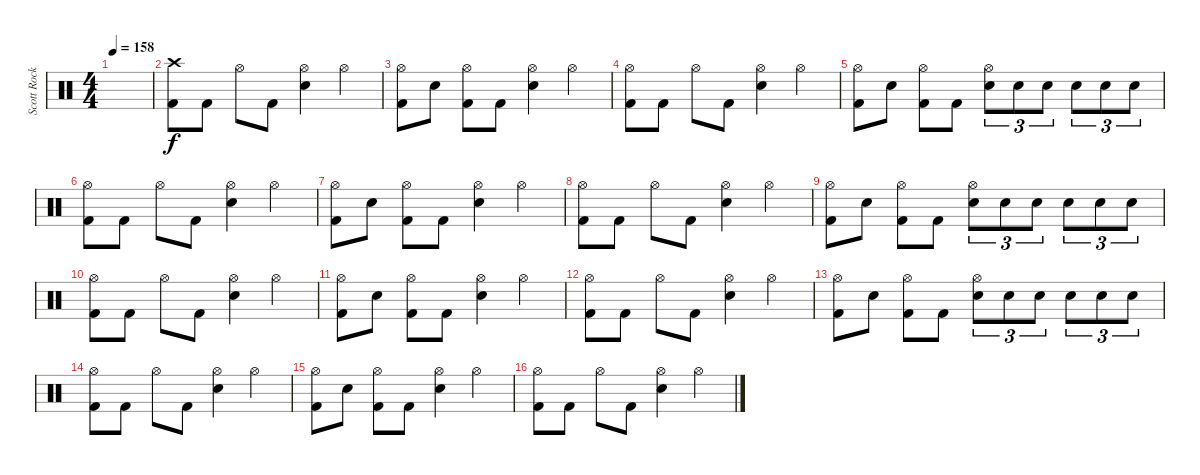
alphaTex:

\track ("Scott Rockenfield" "Scott Rock") {instrument percussion}
\staff {score}
\articulation defaults
\ts (4 4)
\tempo 158
\clef neutral
\ks c
|
("Kick (hit) 2" "Crash high (hit)").8 "Kick (hit) 2".8 "Hi-Hat (open)".8 "Kick (hit) 2".8 ("Hi-Hat (open)" "Electric Snare (hit)").4 "Hi-Hat (open)".4 |
("Kick (hit) 2" "Hi-Hat (open)").8 "Electric Snare (hit)".8 ("Kick (hit) 2" "Hi-Hat (open)").8 "Kick (hit) 2".8 ("Hi-Hat (open)" "Electric Snare (hit)").4 "Hi-Hat (open)".4 |
("Kick (hit) 2" "Hi-Hat (open)").8 "Kick (hit) 2".8 "Hi-Hat (open)".8 "Kick (hit) 2".8 ("Hi-Hat (open)" "Electric Snare (hit)").4 "Hi-Hat (open)".4 |
("Kick (hit) 2" "Hi-Hat (open)").8 "Electric Snare (hit)".8 ("Kick (hit) 2" "Hi-Hat (open)").8 "Kick (hit) 2".8 ("Hi-Hat (open)" "Electric Snare (hit)").8{tu (3 2)} "Electric Snare (hit)".8{tu (3 2)} "Electric Snare (hit)".8{tu (3 2)} "Electric Snare (hit)".8{tu (3 2)} "Electric Snare (hit)".8{tu (3 2)} "Electric Snare (hit)".8{tu (3 2)} |
("Kick (hit) 2" "Hi-Hat (open)").8 "Kick (hit) 2".8 "Hi-Hat (open)".8 "Kick (hit) 2".8 ("Hi-Hat (open)" "Electric Snare (hit)").4 "Hi-Hat (open)".4 |
("Kick (hit) 2" "Hi-Hat (open)").8 "Electric Snare (hit)".8 ("Kick (hit) 2" "Hi-Hat (open)").8 "Kick (hit) 2".8 ("Hi-Hat (open)" "Electric Snare (hit)").4 "Hi-Hat (open)".4 |
("Kick (hit) 2" "Hi-Hat (open)").8 "Kick (hit) 2".8 "Hi-Hat (open)".8 "Kick (hit) 2".8 ("Hi-Hat (open)" "Electric Snare (hit)").4 "Hi-Hat (open)".4 |
("Kick (hit) 2" "Hi-Hat (open)").8 "Electric Snare (hit)".8 ("Kick (hit) 2" "Hi-Hat (open)").8 "Kick (hit) 2".8 ("Hi-Hat (open)" "Electric Snare (hit)").8{tu (3 2)} "Electric Snare (hit)".8{tu (3 2)} "Electric Snare (hit)".8{tu (3 2)} "Electric Snare (hit)".8{tu (3 2)} "Electric Snare (hit)".8{tu (3 2)} "Electric Snare (hit)".8{tu (3 2)} |
("Kick (hit) 2" "Hi-Hat (open)").8 "Kick (hit) 2".8 "Hi-Hat (open)".8 "Kick (hit) 2".8 ("Hi-Hat (open)" "Electric Snare (hit)").4 "Hi-Hat (open)".4 |
("Kick (hit) 2" "Hi-Hat (open)").8 "Electric Snare (hit)".8 ("Kick (hit) 2" "Hi-Hat (open)").8 "Kick (hit) 2".8 ("Hi-Hat (open)" "Electric Snare (hit)").4 "Hi-Hat (open)".4 |
("Kick (hit) 2" "Hi-Hat (open)").8 "Kick (hit) 2".8 "Hi-Hat (open)".8 "Kick (hit) 2".8 ("Hi-Hat (open)" "Electric Snare (hit)").4 "Hi-Hat (open)".4 |
("Kick (hit) 2" "Hi-Hat (open)").8 "Electric Snare (hit)".8 ("Kick (hit) 2" "Hi-Hat (open)").8 "Kick (hit) 2".8 ("Hi-Hat (open)" "Electric Snare (hit)").8{tu (3 2)} "Electric Snare (hit)".8{tu (3 2)} "Electric Snare (hit)".8{tu (3 2)} "Electric Snare (hit)".8{tu (3 2)} "Electric Snare (hit)".8{tu (3 2)} "Electric Snare (hit)".8{tu (3 2)} |
("Kick (hit) 2" "Hi-Hat (open)").8 "Kick (hit) 2".8 "Hi-Hat (open)".8 "Kick (hit) 2".8 ("Hi-Hat (open)" "Electric Snare (hit)").4 "Hi-Hat (open)".4 |
("Kick (hit) 2" "Hi-Hat (open)").8 "Electric Snare (hit)".8 ("Kick (hit) 2" "Hi-Hat (open)").8 "Kick (hit) 2".8 ("Hi-Hat (open)" "Electric Snare (hit)").4 "Hi-Hat (open)".4 |
("Kick (hit) 2" "Hi-Hat (open)").8 "Kick (hit) 2".8 "Hi-Hat (open)".8 "Kick (hit) 2".8 ("Hi-Hat (open)" "Electric Snare (hit)").4 "Hi-Hat (open)".4
